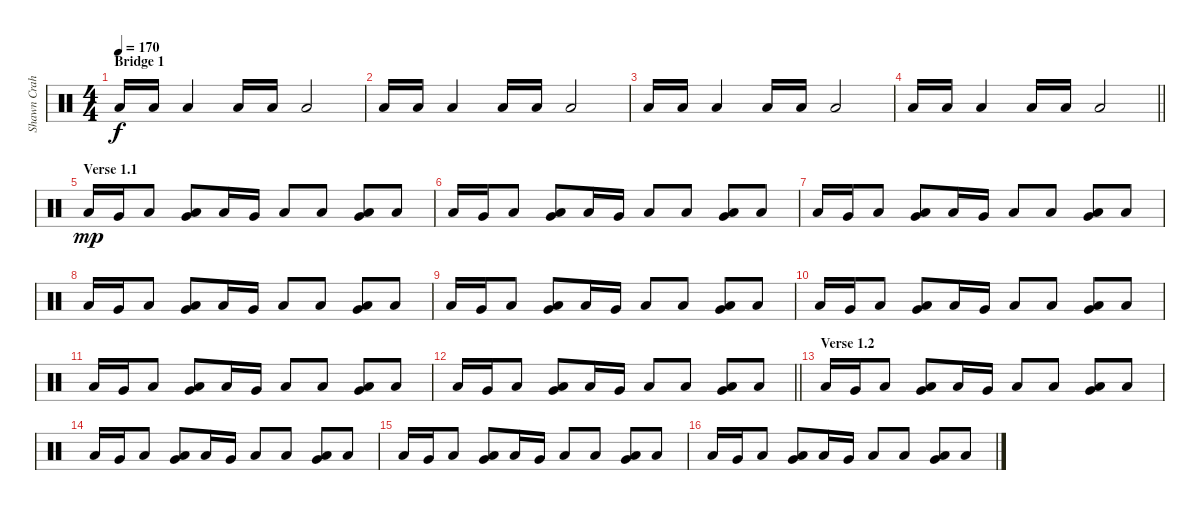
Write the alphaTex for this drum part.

\track ("Shawn Crahan" "Shawn Crah") {instrument percussion}
\staff {score}
\articulation defaults
\ts (4 4)
\section ("" "Bridge 1")
\tempo 170
\clef neutral
\ks c "Low Floor Tom (hit)".16{dy f} "Low Floor Tom (hit)".16 "Low Floor Tom (hit)".4 "Low Floor Tom (hit)".16 "Low Floor Tom (hit)".16 "Low Floor Tom (hit)".2
|
"Low Floor Tom (hit)".16 "Low Floor Tom (hit)".16 "Low Floor Tom (hit)".4 "Low Floor Tom (hit)".16 "Low Floor Tom (hit)".16 "Low Floor Tom (hit)".2 |
"Low Floor Tom (hit)".16 "Low Floor Tom (hit)".16 "Low Floor Tom (hit)".4 "Low Floor Tom (hit)".16 "Low Floor Tom (hit)".16 "Low Floor Tom (hit)".2 |
\barLineRight lightlight "Low Floor Tom (hit)".16 "Low Floor Tom (hit)".16 "Low Floor Tom (hit)".4 "Low Floor Tom (hit)".16 "Low Floor Tom (hit)".16 "Low Floor Tom (hit)".2
|
\section ("" "Verse 1.1")
"Low Floor Tom (hit)".16{dy mp} "Very Low Tom (hit)".16 "Low Floor Tom (hit)".8 ("Very Low Tom (hit)" "Low Floor Tom (hit)").8 "Low Floor Tom (hit)".16 "Very Low Tom (hit)".16 "Low Floor Tom (hit)".8 "Low Floor Tom (hit)".8 ("Very Low Tom (hit)" "Low Floor Tom (hit)").8 "Low Floor Tom (hit)".8 |
"Low Floor Tom (hit)".16 "Very Low Tom (hit)".16 "Low Floor Tom (hit)".8 ("Very Low Tom (hit)" "Low Floor Tom (hit)").8 "Low Floor Tom (hit)".16 "Very Low Tom (hit)".16 "Low Floor Tom (hit)".8 "Low Floor Tom (hit)".8 ("Very Low Tom (hit)" "Low Floor Tom (hit)").8 "Low Floor Tom (hit)".8 |
"Low Floor Tom (hit)".16 "Very Low Tom (hit)".16 "Low Floor Tom (hit)".8 ("Very Low Tom (hit)" "Low Floor Tom (hit)").8 "Low Floor Tom (hit)".16 "Very Low Tom (hit)".16 "Low Floor Tom (hit)".8 "Low Floor Tom (hit)".8 ("Very Low Tom (hit)" "Low Floor Tom (hit)").8 "Low Floor Tom (hit)".8 |
"Low Floor Tom (hit)".16 "Very Low Tom (hit)".16 "Low Floor Tom (hit)".8 ("Very Low Tom (hit)" "Low Floor Tom (hit)").8 "Low Floor Tom (hit)".16 "Very Low Tom (hit)".16 "Low Floor Tom (hit)".8 "Low Floor Tom (hit)".8 ("Very Low Tom (hit)" "Low Floor Tom (hit)").8 "Low Floor Tom (hit)".8 |
"Low Floor Tom (hit)".16 "Very Low Tom (hit)".16 "Low Floor Tom (hit)".8 ("Very Low Tom (hit)" "Low Floor Tom (hit)").8 "Low Floor Tom (hit)".16 "Very Low Tom (hit)".16 "Low Floor Tom (hit)".8 "Low Floor Tom (hit)".8 ("Very Low Tom (hit)" "Low Floor Tom (hit)").8 "Low Floor Tom (hit)".8 |
"Low Floor Tom (hit)".16 "Very Low Tom (hit)".16 "Low Floor Tom (hit)".8 ("Very Low Tom (hit)" "Low Floor Tom (hit)").8 "Low Floor Tom (hit)".16 "Very Low Tom (hit)".16 "Low Floor Tom (hit)".8 "Low Floor Tom (hit)".8 ("Very Low Tom (hit)" "Low Floor Tom (hit)").8 "Low Floor Tom (hit)".8 |
"Low Floor Tom (hit)".16 "Very Low Tom (hit)".16 "Low Floor Tom (hit)".8 ("Very Low Tom (hit)" "Low Floor Tom (hit)").8 "Low Floor Tom (hit)".16 "Very Low Tom (hit)".16 "Low Floor Tom (hit)".8 "Low Floor Tom (hit)".8 ("Very Low Tom (hit)" "Low Floor Tom (hit)").8 "Low Floor Tom (hit)".8 |
\barLineRight lightlight "Low Floor Tom (hit)".16 "Very Low Tom (hit)".16 "Low Floor Tom (hit)".8
("Very Low Tom (hit)" "Low Floor Tom (hit)").8 "Low Floor Tom (hit)".16 "Very Low Tom (hit)".16 "Low Floor Tom (hit)".8 "Low Floor Tom (hit)".8 ("Very Low Tom (hit)" "Low Floor Tom (hit)").8 "Low Floor Tom (hit)".8 |
\section ("" "Verse 1.2")
"Low Floor Tom (hit)".16 "Very Low Tom (hit)".16 "Low Floor Tom (hit)".8 ("Very Low Tom (hit)" "Low Floor Tom (hit)").8 "Low Floor Tom (hit)".16 "Very Low Tom (hit)".16 "Low Floor Tom (hit)".8 "Low Floor Tom (hit)".8 ("Very Low Tom (hit)" "Low Floor Tom (hit)").8 "Low Floor Tom (hit)".8 |
"Low Floor Tom (hit)".16 "Very Low Tom (hit)".16 "Low Floor Tom (hit)".8 ("Very Low Tom (hit)" "Low Floor Tom (hit)").8 "Low Floor Tom (hit)".16 "Very Low Tom (hit)".16 "Low Floor Tom (hit)".8 "Low Floor Tom (hit)".8 ("Very Low Tom (hit)" "Low Floor Tom (hit)").8 "Low Floor Tom (hit)".8 |
"Low Floor Tom (hit)".16 "Very Low Tom (hit)".16 "Low Floor Tom (hit)".8 ("Very Low Tom (hit)" "Low Floor Tom (hit)").8 "Low Floor Tom (hit)".16 "Very Low Tom (hit)".16 "Low Floor Tom (hit)".8 "Low Floor Tom (hit)".8 ("Very Low Tom (hit)" "Low Floor Tom (hit)").8 "Low Floor Tom (hit)".8 |
"Low Floor Tom (hit)".16 "Very Low Tom (hit)".16 "Low Floor Tom (hit)".8 ("Very Low Tom (hit)" "Low Floor Tom (hit)").8 "Low Floor Tom (hit)".16 "Very Low Tom (hit)".16 "Low Floor Tom (hit)".8 "Low Floor Tom (hit)".8 ("Very Low Tom (hit)" "Low Floor Tom (hit)").8 "Low Floor Tom (hit)".8
